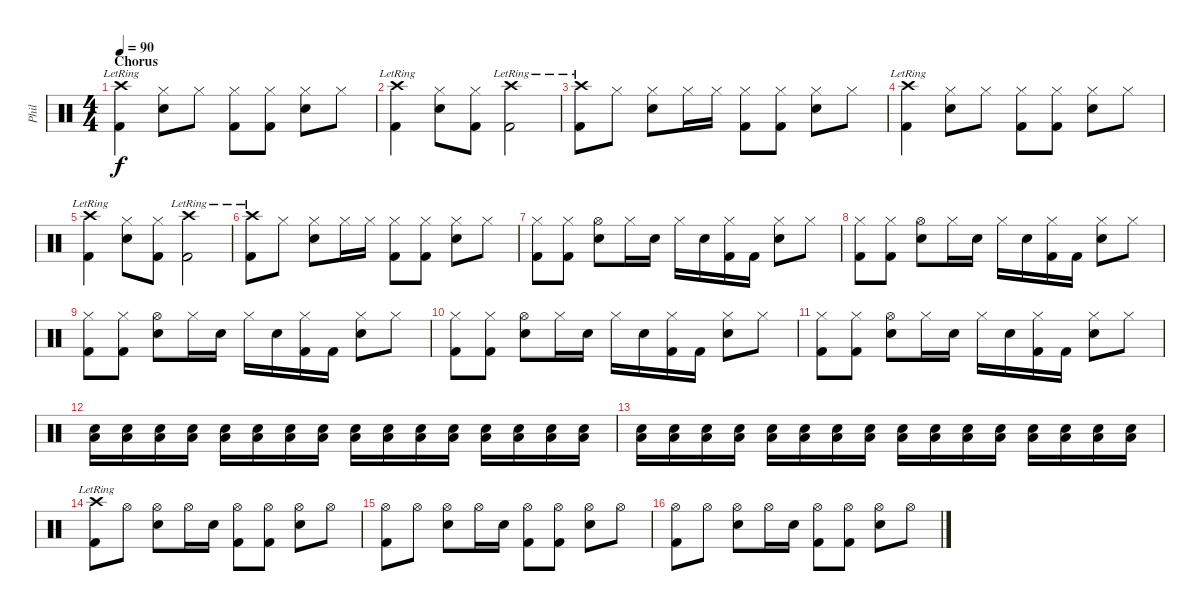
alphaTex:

\track ("Phil" "Phil") {instrument percussion}
\staff {score}
\articulation defaults
\ts (4 4)
\section ("" "Chorus")
\tempo 90
\clef neutral
\ks c
("Kick (hit) 2" "Crash high (hit)"{lr}).4{dy f} ("Snare (hit) 2" "Hi-Hat (closed)").8 "Hi-Hat (closed)".8 ("Kick (hit) 2" "Hi-Hat (closed)").8 ("Kick (hit) 2" "Hi-Hat (closed)").8 ("Snare (hit) 2" "Hi-Hat (closed)").8 "Hi-Hat (closed)".8 |
("Kick (hit) 2" "Crash high (hit)"{lr}).4 ("Snare (hit) 2" "Hi-Hat (closed)").8 ("Kick (hit) 2" "Hi-Hat (closed)").8 ("Kick (hit) 2" "Crash high (hit)"{lr}).2 |
("Kick (hit) 2" "Crash high (hit)"{lr}).8 "Hi-Hat (closed)".8 ("Snare (hit) 2" "Hi-Hat (closed)").8 "Hi-Hat (closed)".16 "Hi-Hat (closed)".16 ("Kick (hit) 2" "Hi-Hat (closed)").8 ("Kick (hit) 2" "Hi-Hat (closed)").8 ("Snare (hit) 2" "Hi-Hat (closed)").8 "Hi-Hat (closed)".8 |
("Kick (hit) 2" "Crash high (hit)"{lr}).4 ("Snare (hit) 2" "Hi-Hat (closed)").8 "Hi-Hat (closed)".8 ("Kick (hit) 2" "Hi-Hat (closed)").8 ("Kick (hit) 2" "Hi-Hat (closed)").8 ("Snare (hit) 2" "Hi-Hat (closed)").8 "Hi-Hat (closed)".8 |
("Kick (hit) 2" "Crash high (hit)"{lr}).4 ("Snare (hit) 2" "Hi-Hat (closed)").8 ("Kick (hit) 2" "Hi-Hat (closed)").8 ("Kick (hit) 2" "Crash high (hit)"{lr}).2 |
("Kick (hit) 2" "Crash high (hit)"{lr}).8 "Hi-Hat (closed)".8 ("Snare (hit) 2" "Hi-Hat (closed)").8 "Hi-Hat (closed)".16 "Hi-Hat (closed)".16 ("Kick (hit) 2" "Hi-Hat (closed)").8 ("Kick (hit) 2" "Hi-Hat (closed)").8 ("Snare (hit) 2" "Hi-Hat (closed)").8 "Hi-Hat (closed)".8 |
("Kick (hit) 2" "Hi-Hat (closed)").8 ("Kick (hit) 2" "Hi-Hat (closed)").8 ("Snare (hit) 2" "Hi-Hat (open)").8 "Hi-Hat (closed)".16 "Snare (hit) 2".16 "Hi-Hat (closed)".16 "Snare (hit) 2".16 ("Kick (hit) 2" "Hi-Hat (closed)").16 "Kick (hit) 2".16 ("Snare (hit) 2" "Hi-Hat (closed)").8 "Hi-Hat (closed)".8 |
("Kick (hit) 2" "Hi-Hat (closed)").8 ("Kick (hit) 2" "Hi-Hat (closed)").8 ("Snare (hit) 2" "Hi-Hat (open)").8 "Hi-Hat (closed)".16 "Snare (hit) 2".16 "Hi-Hat (closed)".16 "Snare (hit) 2".16 ("Kick (hit) 2" "Hi-Hat (closed)").16 "Kick (hit) 2".16 ("Snare (hit) 2" "Hi-Hat (closed)").8 "Hi-Hat (closed)".8 |
("Kick (hit) 2" "Hi-Hat (closed)").8 ("Kick (hit) 2" "Hi-Hat (closed)").8 ("Snare (hit) 2" "Hi-Hat (open)").8 "Hi-Hat (closed)".16 "Snare (hit) 2".16 "Hi-Hat (closed)".16 "Snare (hit) 2".16 ("Kick (hit) 2" "Hi-Hat (closed)").16 "Kick (hit) 2".16 ("Snare (hit) 2" "Hi-Hat (closed)").8 "Hi-Hat (closed)".8 |
("Kick (hit) 2" "Hi-Hat (closed)").8 ("Kick (hit) 2" "Hi-Hat (closed)").8 ("Snare (hit) 2" "Hi-Hat (open)").8 "Hi-Hat (closed)".16 "Snare (hit) 2".16 "Hi-Hat (closed)".16 "Snare (hit) 2".16 ("Kick (hit) 2" "Hi-Hat (closed)").16 "Kick (hit) 2".16 ("Snare (hit) 2" "Hi-Hat (closed)").8 "Hi-Hat (closed)".8 |
("Kick (hit) 2" "Hi-Hat (closed)").8 ("Kick (hit) 2" "Hi-Hat (closed)").8 ("Snare (hit) 2" "Hi-Hat (open)").8 "Hi-Hat (closed)".16 "Snare (hit) 2".16 "Hi-Hat (closed)".16 "Snare (hit) 2".16 ("Kick (hit) 2" "Hi-Hat (closed)").16 "Kick (hit) 2".16 ("Snare (hit) 2" "Hi-Hat (closed)").8 "Hi-Hat (closed)".8 |
("Snare (hit) 2" "Low Floor Tom (hit)").16 ("Snare (hit) 2" "Low Floor Tom (hit)").16 ("Snare (hit) 2" "Low Floor Tom (hit)").16 ("Snare (hit) 2" "Low Floor Tom (hit)").16 ("Snare (hit) 2" "Low Floor Tom (hit)").16 ("Snare (hit) 2" "Low Floor Tom (hit)").16 ("Snare (hit) 2" "Low Floor Tom (hit)").16 ("Snare (hit) 2" "Low Floor Tom (hit)").16 ("Snare (hit) 2" "Low Floor Tom (hit)").16 ("Snare (hit) 2" "Low Floor Tom (hit)").16 ("Snare (hit) 2" "Low Floor Tom (hit)").16 ("Snare (hit) 2" "Low Floor Tom (hit)").16 ("Snare (hit) 2" "Low Floor Tom (hit)").16 ("Snare (hit) 2" "Low Floor Tom (hit)").16 ("Snare (hit) 2" "Low Floor Tom (hit)").16 ("Snare (hit) 2" "Low Floor Tom (hit)").16 |
("Snare (hit) 2" "Low Floor Tom (hit)").16 ("Snare (hit) 2" "Low Floor Tom (hit)").16 ("Snare (hit) 2" "Low Floor Tom (hit)").16 ("Snare (hit) 2" "Low Floor Tom (hit)").16 ("Snare (hit) 2" "Low Floor Tom (hit)").16 ("Snare (hit) 2" "Low Floor Tom (hit)").16 ("Snare (hit) 2" "Low Floor Tom (hit)").16 ("Snare (hit) 2" "Low Floor Tom (hit)").16 ("Snare (hit) 2" "Low Floor Tom (hit)").16 ("Snare (hit) 2" "Low Floor Tom (hit)").16 ("Snare (hit) 2" "Low Floor Tom (hit)").16 ("Snare (hit) 2" "Low Floor Tom (hit)").16 ("Snare (hit) 2" "Low Floor Tom (hit)").16 ("Snare (hit) 2" "Low Floor Tom (hit)").16 ("Snare (hit) 2" "Low Floor Tom (hit)").16 ("Snare (hit) 2" "Low Floor Tom (hit)").16 |
("Kick (hit) 2" "Crash high (hit)"{lr}).8 "Hi-Hat (open)".8 ("Snare (hit) 2" "Hi-Hat (open)").8 "Hi-Hat (open)".16 "Snare (hit) 2".16 ("Kick (hit) 2" "Hi-Hat (open)").8 ("Kick (hit) 2" "Hi-Hat (open)").8 ("Snare (hit) 2" "Hi-Hat (open)").8 "Hi-Hat (open)".8 |
("Kick (hit) 2" "Hi-Hat (open)").8 "Hi-Hat (open)".8 ("Snare (hit) 2" "Hi-Hat (open)").8 "Hi-Hat (open)".16 "Snare (hit) 2".16 ("Kick (hit) 2" "Hi-Hat (open)").8 ("Kick (hit) 2" "Hi-Hat (open)").8 ("Snare (hit) 2" "Hi-Hat (open)").8 "Hi-Hat (open)".8 |
("Kick (hit) 2" "Hi-Hat (open)").8 "Hi-Hat (open)".8 ("Snare (hit) 2" "Hi-Hat (open)").8 "Hi-Hat (open)".16 "Snare (hit) 2".16 ("Kick (hit) 2" "Hi-Hat (open)").8 ("Kick (hit) 2" "Hi-Hat (open)").8 ("Snare (hit) 2" "Hi-Hat (open)").8 "Hi-Hat (open)".8
